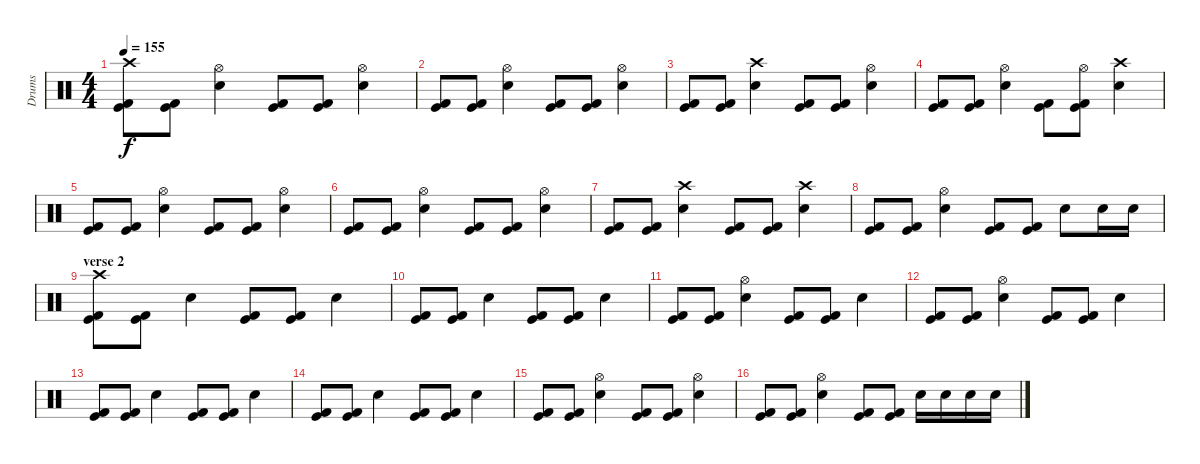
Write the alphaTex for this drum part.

\track ("Drums" "Drums") {instrument percussion}
\staff {score}
\articulation defaults
\ts (4 4)
\tempo 155
\clef neutral
\ks c
("Crash high (hit)" "Kick (hit)" "Kick (hit) 2").8{dy f} ("Kick (hit)" "Kick (hit) 2").8 ("Hi-Hat (open)" "Electric Snare (hit)").4 ("Kick (hit)" "Kick (hit) 2").8 ("Kick (hit)" "Kick (hit) 2").8 ("Hi-Hat (open)" "Electric Snare (hit)").4 |
("Kick (hit)" "Kick (hit) 2").8 ("Kick (hit)" "Kick (hit) 2").8 ("Hi-Hat (open)" "Electric Snare (hit)").4 ("Kick (hit)" "Kick (hit) 2").8 ("Kick (hit)" "Kick (hit) 2").8 ("Hi-Hat (open)" "Electric Snare (hit)").4 |
("Kick (hit)" "Kick (hit) 2").8 ("Kick (hit)" "Kick (hit) 2").8 ("Crash high (hit)" "Electric Snare (hit)").4 ("Kick (hit)" "Kick (hit) 2").8 ("Kick (hit)" "Kick (hit) 2").8 ("Hi-Hat (open)" "Electric Snare (hit)").4 |
("Kick (hit)" "Kick (hit) 2").8 ("Kick (hit)" "Kick (hit) 2").8 ("Hi-Hat (open)" "Electric Snare (hit)").4 ("Kick (hit)" "Kick (hit) 2").8 ("Hi-Hat (open)" "Kick (hit)" "Kick (hit) 2").8 ("Crash high (hit)" "Electric Snare (hit)").4 |
("Kick (hit)" "Kick (hit) 2").8 ("Kick (hit)" "Kick (hit) 2").8 ("Hi-Hat (open)" "Electric Snare (hit)").4 ("Kick (hit)" "Kick (hit) 2").8 ("Kick (hit)" "Kick (hit) 2").8 ("Hi-Hat (open)" "Electric Snare (hit)").4 |
("Kick (hit)" "Kick (hit) 2").8 ("Kick (hit)" "Kick (hit) 2").8 ("Hi-Hat (open)" "Electric Snare (hit)").4 ("Kick (hit)" "Kick (hit) 2").8 ("Kick (hit)" "Kick (hit) 2").8 ("Hi-Hat (open)" "Electric Snare (hit)").4 |
("Kick (hit)" "Kick (hit) 2").8 ("Kick (hit)" "Kick (hit) 2").8 ("Crash high (hit)" "Electric Snare (hit)").4 ("Kick (hit)" "Kick (hit) 2").8 ("Kick (hit)" "Kick (hit) 2").8 ("Crash high (hit)" "Electric Snare (hit)").4 |
("Kick (hit)" "Kick (hit) 2").8 ("Kick (hit)" "Kick (hit) 2").8 ("Hi-Hat (open)" "Electric Snare (hit)").4 ("Kick (hit)" "Kick (hit) 2").8 ("Kick (hit)" "Kick (hit) 2").8 "Electric Snare (hit)".8 "Electric Snare (hit)".16 "Electric Snare (hit)".16 |
\section ("" "verse 2")
("Crash high (hit)" "Kick (hit)" "Kick (hit) 2").8 ("Kick (hit)" "Kick (hit) 2").8 "Electric Snare (hit)".4 ("Kick (hit)" "Kick (hit) 2").8 ("Kick (hit)" "Kick (hit) 2").8 "Electric Snare (hit)".4 |
("Kick (hit)" "Kick (hit) 2").8 ("Kick (hit)" "Kick (hit) 2").8 "Electric Snare (hit)".4 ("Kick (hit)" "Kick (hit) 2").8 ("Kick (hit)" "Kick (hit) 2").8 "Electric Snare (hit)".4 |
("Kick (hit)" "Kick (hit) 2").8 ("Kick (hit)" "Kick (hit) 2").8 ("Hi-Hat (open)" "Electric Snare (hit)").4 ("Kick (hit)" "Kick (hit) 2").8 ("Kick (hit)" "Kick (hit) 2").8 "Electric Snare (hit)".4 |
("Kick (hit)" "Kick (hit) 2").8 ("Kick (hit)" "Kick (hit) 2").8 ("Hi-Hat (open)" "Electric Snare (hit)").4 ("Kick (hit)" "Kick (hit) 2").8 ("Kick (hit)" "Kick (hit) 2").8 "Electric Snare (hit)".4 |
("Kick (hit)" "Kick (hit) 2").8 ("Kick (hit)" "Kick (hit) 2").8 "Electric Snare (hit)".4 ("Kick (hit)" "Kick (hit) 2").8 ("Kick (hit)" "Kick (hit) 2").8 "Electric Snare (hit)".4 |
("Kick (hit)" "Kick (hit) 2").8 ("Kick (hit)" "Kick (hit) 2").8 "Electric Snare (hit)".4 ("Kick (hit)" "Kick (hit) 2").8 ("Kick (hit)" "Kick (hit) 2").8 "Electric Snare (hit)".4 |
("Kick (hit)" "Kick (hit) 2").8 ("Kick (hit)" "Kick (hit) 2").8 ("Hi-Hat (open)" "Electric Snare (hit)").4 ("Kick (hit)" "Kick (hit) 2").8 ("Kick (hit)" "Kick (hit) 2").8 ("Hi-Hat (open)" "Electric Snare (hit)").4 |
("Kick (hit)" "Kick (hit) 2").8 ("Kick (hit)" "Kick (hit) 2").8 ("Hi-Hat (open)" "Electric Snare (hit)").4 ("Kick (hit)" "Kick (hit) 2").8 ("Kick (hit)" "Kick (hit) 2").8 "Electric Snare (hit)".16 "Electric Snare (hit)".16 "Electric Snare (hit)".16 "Electric Snare (hit)".16
